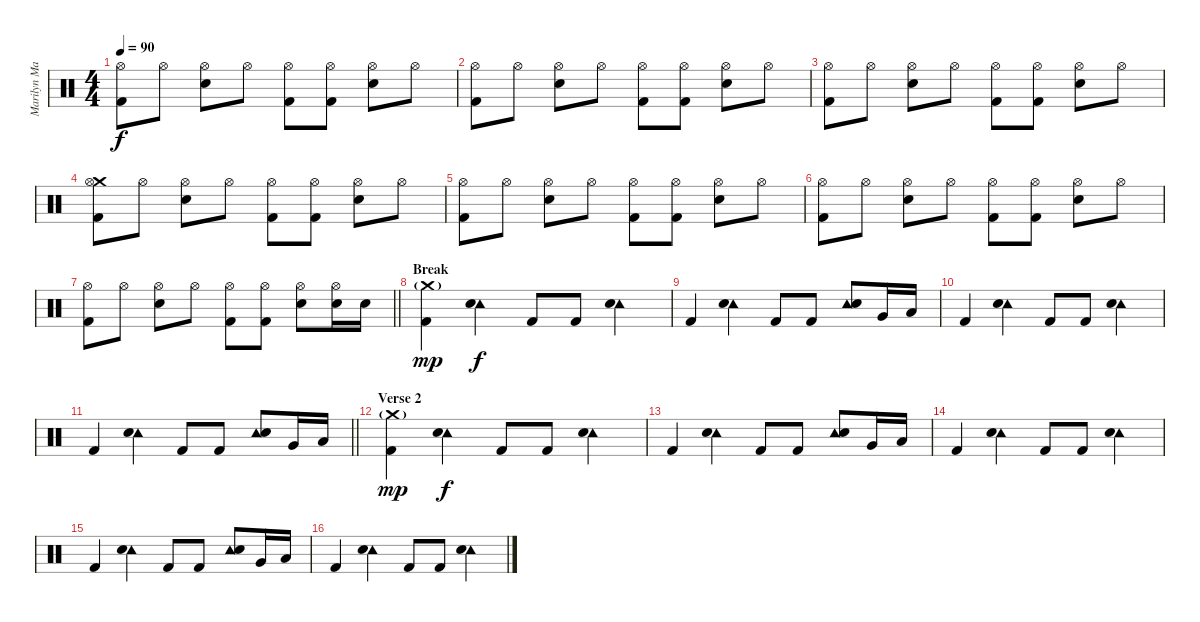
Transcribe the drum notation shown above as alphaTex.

\track ("Marilyn Manson" "Marilyn Ma") {instrument percussion}
\staff {score}
\articulation defaults
\ts (4 4)
\tempo 90
\clef neutral
\ks c
("Hi-Hat (open)" "Kick (hit) 2").8{dy f} "Hi-Hat (open)".8 ("Hi-Hat (open)" "Snare (hit) 2").8 "Hi-Hat (open)".8 ("Hi-Hat (open)" "Kick (hit) 2").8 ("Hi-Hat (open)" "Kick (hit) 2").8 ("Hi-Hat (open)" "Snare (hit) 2").8 "Hi-Hat (open)".8 |
("Hi-Hat (open)" "Kick (hit) 2").8 "Hi-Hat (open)".8 ("Hi-Hat (open)" "Snare (hit) 2").8 "Hi-Hat (open)".8 ("Hi-Hat (open)" "Kick (hit) 2").8 ("Hi-Hat (open)" "Kick (hit) 2").8 ("Hi-Hat (open)" "Snare (hit) 2").8 "Hi-Hat (open)".8 |
("Hi-Hat (open)" "Kick (hit) 2").8 "Hi-Hat (open)".8 ("Hi-Hat (open)" "Snare (hit) 2").8 "Hi-Hat (open)".8 ("Hi-Hat (open)" "Kick (hit) 2").8 ("Hi-Hat (open)" "Kick (hit) 2").8 ("Hi-Hat (open)" "Snare (hit) 2").8 "Hi-Hat (open)".8 |
("Crash medium (hit)" "Hi-Hat (open)" "Kick (hit) 2").8 "Hi-Hat (open)".8 ("Hi-Hat (open)" "Snare (hit) 2").8 "Hi-Hat (open)".8 ("Hi-Hat (open)" "Kick (hit) 2").8 ("Hi-Hat (open)" "Kick (hit) 2").8 ("Hi-Hat (open)" "Snare (hit) 2").8 "Hi-Hat (open)".8 |
("Hi-Hat (open)" "Kick (hit) 2").8 "Hi-Hat (open)".8 ("Hi-Hat (open)" "Snare (hit) 2").8 "Hi-Hat (open)".8 ("Hi-Hat (open)" "Kick (hit) 2").8 ("Hi-Hat (open)" "Kick (hit) 2").8 ("Hi-Hat (open)" "Snare (hit) 2").8 "Hi-Hat (open)".8 |
("Hi-Hat (open)" "Kick (hit) 2").8 "Hi-Hat (open)".8 ("Hi-Hat (open)" "Snare (hit) 2").8 "Hi-Hat (open)".8 ("Hi-Hat (open)" "Kick (hit) 2").8 ("Hi-Hat (open)" "Kick (hit) 2").8 ("Hi-Hat (open)" "Snare (hit) 2").8 "Hi-Hat (open)".8 |
\barLineRight lightlight
("Hi-Hat (open)" "Kick (hit) 2").8 "Hi-Hat (open)".8 ("Hi-Hat (open)" "Snare (hit) 2").8 "Hi-Hat (open)".8 ("Hi-Hat (open)" "Kick (hit) 2").8 ("Hi-Hat (open)" "Kick (hit) 2").8 ("Hi-Hat (open)" "Snare (hit) 2").8 ("Hi-Hat (open)" "Snare (hit) 2").16 "Snare (hit) 2".16 |
\section ("" "Break")
("Crash medium (hit)"{g} "Kick (hit) 2").4{dy mp} ("Tambourine (hit)" "Snare (hit) 2").4{dy f} "Kick (hit) 2".8 "Kick (hit) 2".8 ("Tambourine (hit)" "Snare (hit) 2").4 |
"Kick (hit) 2".4 ("Tambourine (hit)" "Snare (hit) 2").4 "Kick (hit) 2".8 "Kick (hit) 2".8 ("Tambourine (hit)" "Snare (hit) 2").8 "Very Low Tom (hit)".16 "Low Floor Tom (hit)".16 |
"Kick (hit) 2".4 ("Tambourine (hit)" "Snare (hit) 2").4 "Kick (hit) 2".8 "Kick (hit) 2".8 ("Tambourine (hit)" "Snare (hit) 2").4 |
\barLineRight lightlight "Kick (hit) 2".4
("Tambourine (hit)" "Snare (hit) 2").4 "Kick (hit) 2".8 "Kick (hit) 2".8 ("Tambourine (hit)" "Snare (hit) 2").8 "Very Low Tom (hit)".16 "Low Floor Tom (hit)".16 |
\section ("" "Verse 2")
("Crash medium (hit)"{g} "Kick (hit) 2").4{dy mp} ("Tambourine (hit)" "Snare (hit) 2").4{dy f} "Kick (hit) 2".8 "Kick (hit) 2".8 ("Tambourine (hit)" "Snare (hit) 2").4 |
"Kick (hit) 2".4 ("Tambourine (hit)" "Snare (hit) 2").4 "Kick (hit) 2".8 "Kick (hit) 2".8 ("Tambourine (hit)" "Snare (hit) 2").8 "Very Low Tom (hit)".16 "Low Floor Tom (hit)".16 |
"Kick (hit) 2".4 ("Tambourine (hit)" "Snare (hit) 2").4 "Kick (hit) 2".8 "Kick (hit) 2".8 ("Tambourine (hit)" "Snare (hit) 2").4 |
"Kick (hit) 2".4 ("Tambourine (hit)" "Snare (hit) 2").4 "Kick (hit) 2".8 "Kick (hit) 2".8 ("Tambourine (hit)" "Snare (hit) 2").8 "Very Low Tom (hit)".16 "Low Floor Tom (hit)".16 |
"Kick (hit) 2".4 ("Tambourine (hit)" "Snare (hit) 2").4 "Kick (hit) 2".8 "Kick (hit) 2".8 ("Tambourine (hit)" "Snare (hit) 2").4
